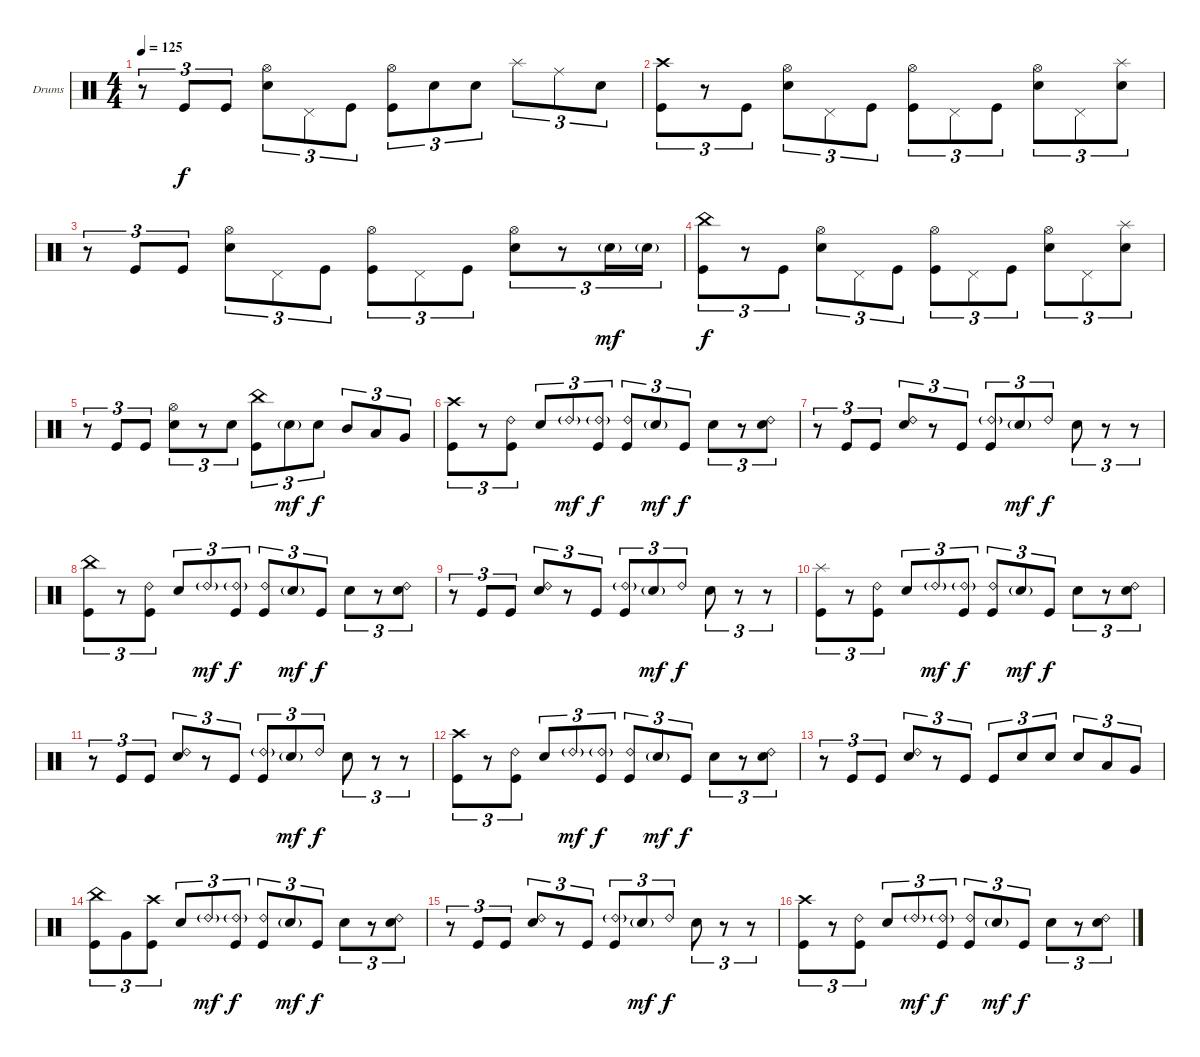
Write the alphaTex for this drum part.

\bracketExtendMode nobrackets
\firstSystemTrackNameOrientation horizontal
\otherSystemsTrackNameOrientation horizontal
\track ("Drumkit" "Drums") {instrument percussion}
\staff {score}
\articulation defaults
\ts (4 4)
\tempo 125
\clef neutral
\ks c
r.8{tu (3 2) dy f} "Kick (hit)".8{tu (3 2)} "Kick (hit)".8{tu (3 2)} ("Hi-Hat (open)" "Snare (hit) 2").8{tu (3 2)} "Pedal Hi-Hat (hit)".8{tu (3 2)} "Kick (hit)".8{tu (3 2)} ("Hi-Hat (open)" "Kick (hit)").8{tu (3 2)} "Snare (hit) 2".8{tu (3 2)} "Snare (hit) 2".8{tu (3 2)} "Splash (hit)".8{tu (3 2)} "Ride (middle)".8{tu (3 2)} "Snare (hit) 2".8{tu (3 2)} |
("Crash high (hit)" "Kick (hit)").8{tu (3 2)} r.8{tu (3 2)} "Kick (hit)".8{tu (3 2)} ("Hi-Hat (open)" "Snare (hit) 2").8{tu (3 2)} "Pedal Hi-Hat (hit)".8{tu (3 2)} "Kick (hit)".8{tu (3 2)} ("Hi-Hat (open)" "Kick (hit)").8{tu (3 2)} "Pedal Hi-Hat (hit)".8{tu (3 2)} "Kick (hit)".8{tu (3 2)} ("Hi-Hat (open)" "Snare (hit) 2").8{tu (3 2)} "Pedal Hi-Hat (hit)".8{tu (3 2)} ("Splash (hit)" "Snare (hit) 2").8{tu (3 2)} |
r.8{tu (3 2)} "Kick (hit)".8{tu (3 2)} "Kick (hit)".8{tu (3 2)} ("Hi-Hat (open)" "Snare (hit) 2").8{tu (3 2)} "Pedal Hi-Hat (hit)".8{tu (3 2)} "Kick (hit)".8{tu (3 2)} ("Hi-Hat (open)" "Kick (hit)").8{tu (3 2)} "Pedal Hi-Hat (hit)".8{tu (3 2)} "Kick (hit)".8{tu (3 2)} ("Hi-Hat (open)" "Snare (hit) 2").8{tu (3 2)} r.8{tu (3 2)} "Snare (hit) 2"{g}.16{tu (3 2) dy mf} "Snare (hit) 2"{g}.16{tu (3 2)} |
("China (hit)" "Kick (hit)").8{tu (3 2) dy f} r.8{tu (3 2)} "Kick (hit)".8{tu (3 2)} ("Hi-Hat (open)" "Snare (hit) 2").8{tu (3 2)} "Pedal Hi-Hat (hit)".8{tu (3 2)} "Kick (hit)".8{tu (3 2)} ("Hi-Hat (open)" "Kick (hit)").8{tu (3 2)} "Pedal Hi-Hat (hit)".8{tu (3 2)} "Kick (hit)".8{tu (3 2)} ("Hi-Hat (open)" "Snare (hit) 2").8{tu (3 2)} "Pedal Hi-Hat (hit)".8{tu (3 2)} ("Splash (hit)" "Snare (hit) 2").8{tu (3 2)} |
r.8{tu (3 2)} "Kick (hit)".8{tu (3 2)} "Kick (hit)".8{tu (3 2)} ("Hi-Hat (open)" "Snare (hit) 2").8{tu (3 2)} r.8{tu (3 2)} "Snare (hit) 2".8{tu (3 2)} ("China (hit)" "Kick (hit)").8{tu (3 2)} "Snare (hit) 2"{g}.8{tu (3 2) dy mf} "Snare (hit) 2".8{tu (3 2) dy f} "Mid Tom (hit)".8{tu (3 2)} "Low Tom (hit)".8{tu (3 2)} "Very Low Tom (hit)".8{tu (3 2)} |
("Crash high (hit)" "Kick (hit)").8{tu (3 2)} r.8{tu (3 2)} ("Ride (bell) 2" "Kick (hit)").8{tu (3 2)} "Snare (hit) 2".8{tu (3 2)} "Ride (bell) 2"{g}.8{tu (3 2) dy mf} ("Ride (bell) 2"{g} "Kick (hit)").8{tu (3 2) dy f} ("Ride (bell) 2" "Kick (hit)").8{tu (3 2)} "Snare (hit) 2"{g}.8{tu (3 2) dy mf} "Kick (hit)".8{tu (3 2) dy f} "Snare (hit) 2".8{tu (3 2)} r.8{tu (3 2)} ("Ride (bell) 2" "Snare (hit) 2").8{tu (3 2)} |
r.8{tu (3 2)} "Kick (hit)".8{tu (3 2)} "Kick (hit)".8{tu (3 2)} ("Ride (bell) 2" "Snare (hit) 2").8{tu (3 2)} r.8{tu (3 2)} "Kick (hit)".8{tu (3 2)} ("Ride (bell) 2"{g} "Kick (hit)").8{tu (3 2)} "Snare (hit) 2"{g}.8{tu (3 2) dy mf} "Ride (bell) 2".8{tu (3 2) dy f} "Snare (hit) 2".8{tu (3 2)} r.8{tu (3 2)} r.8{tu (3 2)} |
("China (hit)" "Kick (hit)").8{tu (3 2)} r.8{tu (3 2)} ("Ride (bell) 2" "Kick (hit)").8{tu (3 2)} "Snare (hit) 2".8{tu (3 2)} "Ride (bell) 2"{g}.8{tu (3 2) dy mf} ("Ride (bell) 2"{g} "Kick (hit)").8{tu (3 2) dy f} ("Ride (bell) 2" "Kick (hit)").8{tu (3 2)} "Snare (hit) 2"{g}.8{tu (3 2) dy mf} "Kick (hit)".8{tu (3 2) dy f} "Snare (hit) 2".8{tu (3 2)} r.8{tu (3 2)} ("Ride (bell) 2" "Snare (hit) 2").8{tu (3 2)} |
r.8{tu (3 2)} "Kick (hit)".8{tu (3 2)} "Kick (hit)".8{tu (3 2)} ("Ride (bell) 2" "Snare (hit) 2").8{tu (3 2)} r.8{tu (3 2)} "Kick (hit)".8{tu (3 2)} ("Ride (bell) 2"{g} "Kick (hit)").8{tu (3 2)} "Snare (hit) 2"{g}.8{tu (3 2) dy mf} "Ride (bell) 2".8{tu (3 2) dy f} "Snare (hit) 2".8{tu (3 2)} r.8{tu (3 2)} r.8{tu (3 2)} |
("Splash (hit)" "Kick (hit)").8{tu (3 2)} r.8{tu (3 2)} ("Ride (bell) 2" "Kick (hit)").8{tu (3 2)} "Snare (hit) 2".8{tu (3 2)} "Ride (bell) 2"{g}.8{tu (3 2) dy mf} ("Ride (bell) 2"{g} "Kick (hit)").8{tu (3 2) dy f} ("Ride (bell) 2" "Kick (hit)").8{tu (3 2)} "Snare (hit) 2"{g}.8{tu (3 2) dy mf} "Kick (hit)".8{tu (3 2) dy f} "Snare (hit) 2".8{tu (3 2)} r.8{tu (3 2)} ("Ride (bell) 2" "Snare (hit) 2").8{tu (3 2)} |
r.8{tu (3 2)} "Kick (hit)".8{tu (3 2)} "Kick (hit)".8{tu (3 2)} ("Ride (bell) 2" "Snare (hit) 2").8{tu (3 2)} r.8{tu (3 2)} "Kick (hit)".8{tu (3 2)} ("Ride (bell) 2"{g} "Kick (hit)").8{tu (3 2)} "Snare (hit) 2"{g}.8{tu (3 2) dy mf} "Ride (bell) 2".8{tu (3 2) dy f} "Snare (hit) 2".8{tu (3 2)} r.8{tu (3 2)} r.8{tu (3 2)} |
("Crash high (hit)" "Kick (hit)").8{tu (3 2)} r.8{tu (3 2)} ("Ride (bell) 2" "Kick (hit)").8{tu (3 2)} "Snare (hit) 2".8{tu (3 2)} "Ride (bell) 2"{g}.8{tu (3 2) dy mf} ("Ride (bell) 2"{g} "Kick (hit)").8{tu (3 2) dy f} ("Ride (bell) 2" "Kick (hit)").8{tu (3 2)} "Snare (hit) 2"{g}.8{tu (3 2) dy mf} "Kick (hit)".8{tu (3 2) dy f} "Snare (hit) 2".8{tu (3 2)} r.8{tu (3 2)} ("Ride (bell) 2" "Snare (hit) 2").8{tu (3 2)} |
r.8{tu (3 2)} "Kick (hit)".8{tu (3 2)} "Kick (hit)".8{tu (3 2)} ("Ride (bell) 2" "Snare (hit) 2").8{tu (3 2)} r.8{tu (3 2)} "Kick (hit)".8{tu (3 2)} "Kick (hit)".8{tu (3 2)} "Snare (hit) 2".8{tu (3 2)} "Snare (hit) 2".8{tu (3 2)} "Snare (hit) 2".8{tu (3 2)} "Low Tom (hit)".8{tu (3 2)} "Very Low Tom (hit)".8{tu (3 2)} |
("China (hit)" "Kick (hit)").8{tu (3 2)} "Very Low Tom (hit)".8{tu (3 2)} ("Crash high (hit)" "Kick (hit)").8{tu (3 2)} "Snare (hit) 2".8{tu (3 2)} "Ride (bell) 2"{g}.8{tu (3 2) dy mf} ("Ride (bell) 2"{g} "Kick (hit)").8{tu (3 2) dy f} ("Ride (bell) 2" "Kick (hit)").8{tu (3 2)} "Snare (hit) 2"{g}.8{tu (3 2) dy mf} "Kick (hit)".8{tu (3 2) dy f} "Snare (hit) 2".8{tu (3 2)} r.8{tu (3 2)} ("Ride (bell) 2" "Snare (hit) 2").8{tu (3 2)} |
r.8{tu (3 2)} "Kick (hit)".8{tu (3 2)} "Kick (hit)".8{tu (3 2)} ("Ride (bell) 2" "Snare (hit) 2").8{tu (3 2)} r.8{tu (3 2)} "Kick (hit)".8{tu (3 2)} ("Ride (bell) 2"{g} "Kick (hit)").8{tu (3 2)} "Snare (hit) 2"{g}.8{tu (3 2) dy mf} "Ride (bell) 2".8{tu (3 2) dy f} "Snare (hit) 2".8{tu (3 2)} r.8{tu (3 2)} r.8{tu (3 2)} |
("Crash high (hit)" "Kick (hit)").8{tu (3 2)} r.8{tu (3 2)} ("Ride (bell) 2" "Kick (hit)").8{tu (3 2)} "Snare (hit) 2".8{tu (3 2)} "Ride (bell) 2"{g}.8{tu (3 2) dy mf} ("Ride (bell) 2"{g} "Kick (hit)").8{tu (3 2) dy f} ("Ride (bell) 2" "Kick (hit)").8{tu (3 2)} "Snare (hit) 2"{g}.8{tu (3 2) dy mf} "Kick (hit)".8{tu (3 2) dy f} "Snare (hit) 2".8{tu (3 2)} r.8{tu (3 2)} ("Ride (bell) 2" "Snare (hit) 2").8{tu (3 2)}
